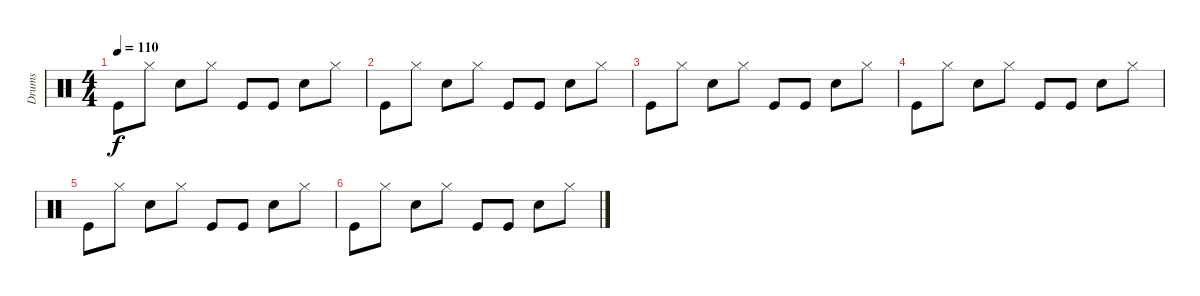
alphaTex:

\track ("Drums" "Drums") {instrument percussion}
\staff {score}
\articulation defaults
\ts (4 4)
\tempo 110
\clef neutral
\ks c "Kick (hit)".8{dy f} "Hi-Hat (closed)".8 "Electric Snare (hit)".8 "Hi-Hat (closed)".8 "Kick (hit)".8 "Kick (hit)".8 "Electric Snare (hit)".8 "Hi-Hat (closed)".8
|
"Kick (hit)".8 "Hi-Hat (closed)".8 "Electric Snare (hit)".8 "Hi-Hat (closed)".8 "Kick (hit)".8 "Kick (hit)".8 "Electric Snare (hit)".8 "Hi-Hat (closed)".8 |
"Kick (hit)".8{volume 4} "Hi-Hat (closed)".8 "Electric Snare (hit)".8 "Hi-Hat (closed)".8 "Kick (hit)".8 "Kick (hit)".8 "Electric Snare (hit)".8 "Hi-Hat (closed)".8 |
"Kick (hit)".8 "Hi-Hat (closed)".8 "Electric Snare (hit)".8 "Hi-Hat (closed)".8 "Kick (hit)".8 "Kick (hit)".8 "Electric Snare (hit)".8 "Hi-Hat (closed)".8 |
"Kick (hit)".8{volume 0} "Hi-Hat (closed)".8 "Electric Snare (hit)".8 "Hi-Hat (closed)".8 "Kick (hit)".8 "Kick (hit)".8 "Electric Snare (hit)".8 "Hi-Hat (closed)".8 |
"Kick (hit)".8 "Hi-Hat (closed)".8 "Electric Snare (hit)".8 "Hi-Hat (closed)".8 "Kick (hit)".8 "Kick (hit)".8 "Electric Snare (hit)".8 "Hi-Hat (closed)".8
